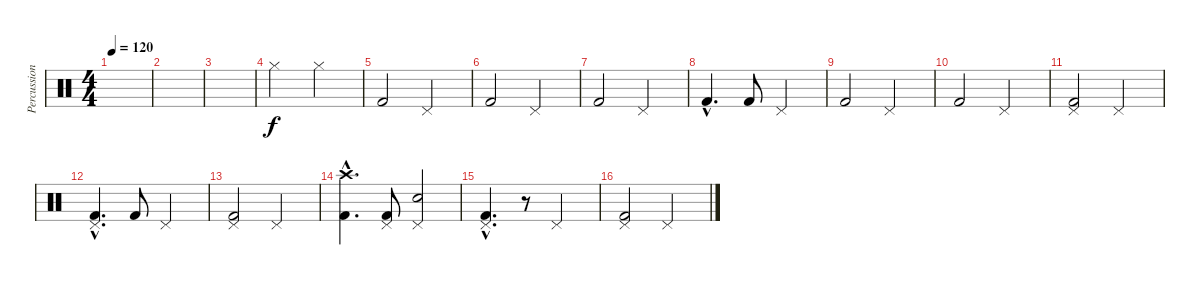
\track ("Percussion" "Percussion") {instrument percussion}
\staff {score}
\articulation defaults
\ts (4 4)
\tempo 120
\clef neutral
\ks c
|
|
|
"Hi-Hat (closed)".2 "Hi-Hat (closed)".2 |
"Kick (hit) 2".2 "Pedal Hi-Hat (hit)".2 |
"Kick (hit) 2".2 "Pedal Hi-Hat (hit)".2 |
"Kick (hit) 2".2 "Pedal Hi-Hat (hit)".2 |
"Kick (hit) 2"{hac}.4{d} "Kick (hit) 2".8 "Pedal Hi-Hat (hit)".2 |
"Kick (hit) 2".2 "Pedal Hi-Hat (hit)".2 |
"Kick (hit) 2".2 "Pedal Hi-Hat (hit)".2 |
("Kick (hit) 2" "Pedal Hi-Hat (hit)").2 "Pedal Hi-Hat (hit)".2 |
("Kick (hit) 2"{hac} "Pedal Hi-Hat (hit)"{hac}).4{d} "Kick (hit) 2".8 "Pedal Hi-Hat (hit)".2 |
("Kick (hit) 2" "Pedal Hi-Hat (hit)").2 "Pedal Hi-Hat (hit)".2 |
("Kick (hit) 2"{hac} "Crash high (hit)"{hac}).4{d} ("Kick (hit) 2" "Pedal Hi-Hat (hit)").8 ("Snare (hit) 2" "Pedal Hi-Hat (hit)").2 |
("Kick (hit) 2"{hac} "Pedal Hi-Hat (hit)"{hac}).4{d} r.8 "Pedal Hi-Hat (hit)".2 |
("Kick (hit) 2" "Pedal Hi-Hat (hit)").2 "Pedal Hi-Hat (hit)".2
